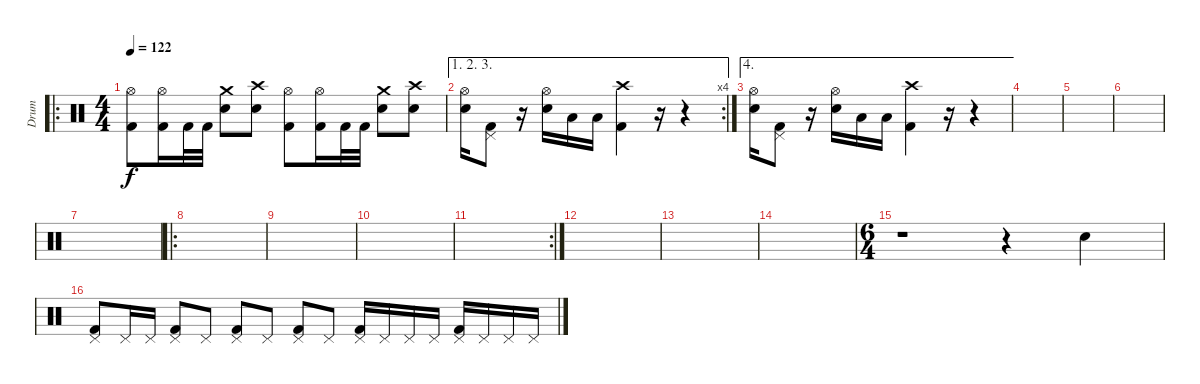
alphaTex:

\track ("Drum" "Drum") {instrument percussion}
\staff {score}
\articulation defaults
\ro
\ts (4 4)
\tempo 122
\clef neutral
\ks c
("Hi-Hat (open)" "Kick (hit) 2").8{dy f} ("Hi-Hat (open)" "Kick (hit) 2").16 "Kick (hit) 2".32 "Kick (hit) 2".32 ("Crash medium (hit)" "Electric Snare (hit)").8 ("Crash high (hit)" "Electric Snare (hit)").8 ("Hi-Hat (open)" "Kick (hit) 2").8 ("Hi-Hat (open)" "Kick (hit) 2").16 "Kick (hit) 2".32 "Kick (hit) 2".32 ("Crash medium (hit)" "Electric Snare (hit)").8 ("Crash high (hit)" "Electric Snare (hit)").8 |
\ae (1 2 3)
\rc 4
("Hi-Hat (open)" "Electric Snare (hit)").16 ("Pedal Hi-Hat (hit)" "Kick (hit) 2").8 r.16 ("Hi-Hat (open)" "Electric Snare (hit)").16 "Low Tom (hit)".16 "Low Tom (hit)".16 ("Crash high (hit)" "Kick (hit) 2").4 r.16 r.4 |
\ae 4
("Hi-Hat (open)" "Electric Snare (hit)").16 ("Pedal Hi-Hat (hit)" "Kick (hit) 2").8 r.16 ("Hi-Hat (open)" "Electric Snare (hit)").16 "Low Tom (hit)".16 "Low Tom (hit)".16 ("Crash high (hit)" "Kick (hit) 2").4 r.16 r.4 |
|
|
|
|
\ro
|
|
|
\rc 2
|
|
|
|
\ts (6 4)
r.1 r.4 "Electric Snare (hit)".4 |
("Pedal Hi-Hat (hit)" "Kick (hit) 2").8 "Pedal Hi-Hat (hit)".16 "Pedal Hi-Hat (hit)".16 ("Pedal Hi-Hat (hit)" "Kick (hit) 2").8 "Pedal Hi-Hat (hit)".8 ("Pedal Hi-Hat (hit)" "Kick (hit) 2").8 "Pedal Hi-Hat (hit)".8 ("Pedal Hi-Hat (hit)" "Kick (hit) 2").8 "Pedal Hi-Hat (hit)".8 ("Pedal Hi-Hat (hit)" "Kick (hit) 2").16 "Pedal Hi-Hat (hit)".16 "Pedal Hi-Hat (hit)".16 "Pedal Hi-Hat (hit)".16 ("Pedal Hi-Hat (hit)" "Kick (hit) 2").16 "Pedal Hi-Hat (hit)".16 "Pedal Hi-Hat (hit)".16 "Pedal Hi-Hat (hit)".16
